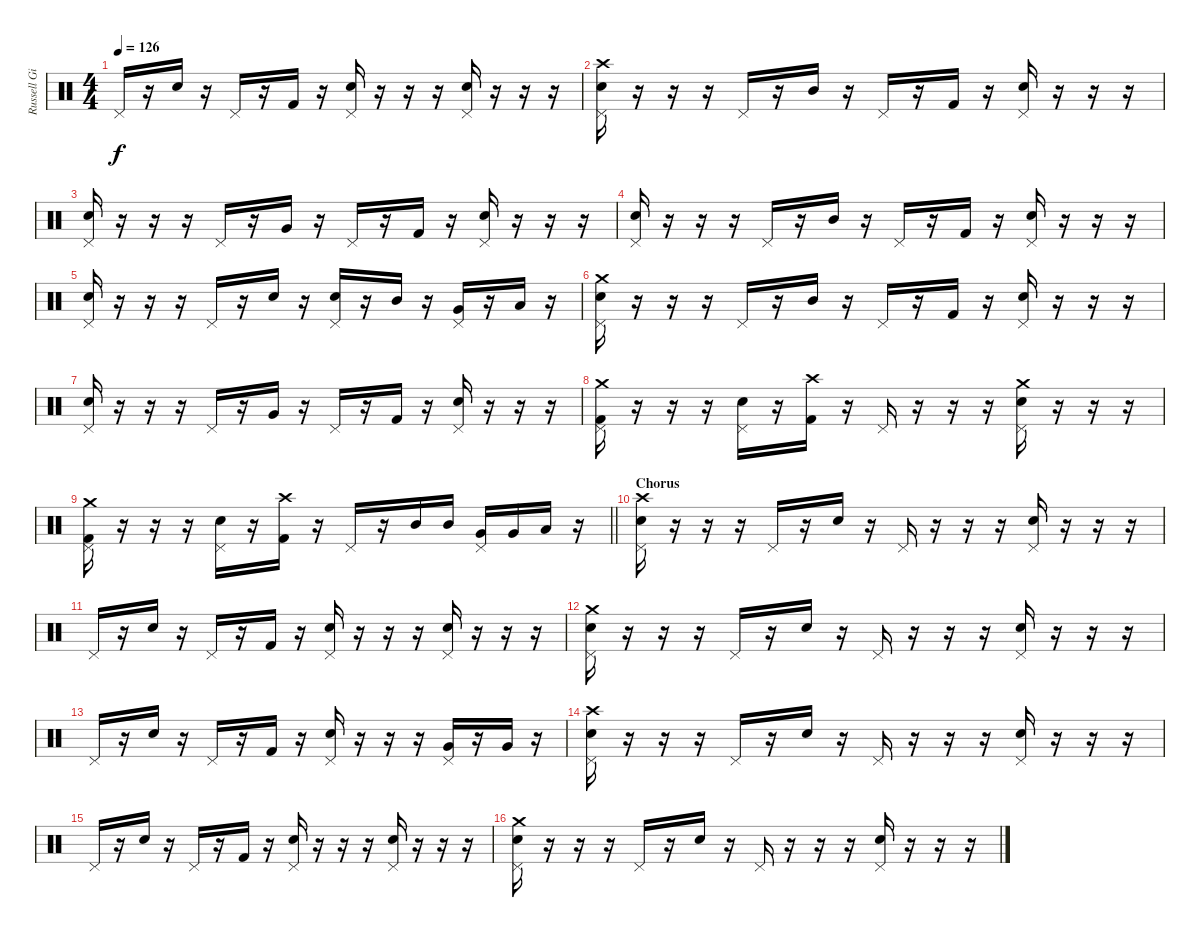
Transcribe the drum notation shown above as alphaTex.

\track ("Russell Gilbrook - Drums" "Russell Gi") {instrument percussion}
\staff {score}
\articulation defaults
\ts (4 4)
\tempo 126
\clef neutral
\ks c "Pedal Hi-Hat (hit)".16{dy f}
r.16 "Snare (hit) 2".16 r.16 "Pedal Hi-Hat (hit)".16 r.16 "Kick (hit) 2".16 r.16 ("Pedal Hi-Hat (hit)" "Snare (hit) 2").16 r.16 r.16 r.16 ("Pedal Hi-Hat (hit)" "Snare (hit) 2").16 r.16 r.16 r.16 |
("Crash high (hit)" "Pedal Hi-Hat (hit)" "Snare (hit) 2").16 r.16 r.16 r.16 "Pedal Hi-Hat (hit)".16 r.16 "Mid Tom (hit)".16 r.16 "Pedal Hi-Hat (hit)".16 r.16 "Kick (hit) 2".16 r.16 ("Pedal Hi-Hat (hit)" "Snare (hit) 2").16 r.16 r.16 r.16 |
("Pedal Hi-Hat (hit)" "Snare (hit) 2").16 r.16 r.16 r.16 "Pedal Hi-Hat (hit)".16 r.16 "Very Low Tom (hit)".16 r.16 "Pedal Hi-Hat (hit)".16 r.16 "Kick (hit) 2".16 r.16 ("Pedal Hi-Hat (hit)" "Snare (hit) 2").16 r.16 r.16 r.16 |
("Pedal Hi-Hat (hit)" "Snare (hit) 2").16 r.16 r.16 r.16 "Pedal Hi-Hat (hit)".16 r.16 "Mid Tom (hit)".16 r.16 "Pedal Hi-Hat (hit)".16 r.16 "Kick (hit) 2".16 r.16 ("Pedal Hi-Hat (hit)" "Snare (hit) 2").16 r.16 r.16 r.16 |
("Pedal Hi-Hat (hit)" "Snare (hit) 2").16 r.16 r.16 r.16 "Pedal Hi-Hat (hit)".16 r.16 "Snare (hit) 2".16 r.16 ("Pedal Hi-Hat (hit)" "Snare (hit) 2").16 r.16 "Mid Tom (hit)".16 r.16 ("Very Low Tom (hit)" "Pedal Hi-Hat (hit)").16 r.16 "Low Floor Tom (hit)".16 r.16 |
("Crash medium (hit)" "Pedal Hi-Hat (hit)" "Snare (hit) 2").16 r.16 r.16 r.16 "Pedal Hi-Hat (hit)".16 r.16 "Mid Tom (hit)".16 r.16 "Pedal Hi-Hat (hit)".16 r.16 "Kick (hit) 2".16 r.16 ("Pedal Hi-Hat (hit)" "Snare (hit) 2").16 r.16 r.16 r.16 |
("Pedal Hi-Hat (hit)" "Snare (hit) 2").16 r.16 r.16 r.16 "Pedal Hi-Hat (hit)".16 r.16 "Very Low Tom (hit)".16 r.16 "Pedal Hi-Hat (hit)".16 r.16 "Kick (hit) 2".16 r.16 ("Pedal Hi-Hat (hit)" "Snare (hit) 2").16 r.16 r.16 r.16 |
("Crash medium (hit)" "Pedal Hi-Hat (hit)" "Kick (hit) 2").16 r.16 r.16 r.16 ("Pedal Hi-Hat (hit)" "Snare (hit) 2").16 r.16 ("Crash high (hit)" "Kick (hit) 2").16 r.16 "Pedal Hi-Hat (hit)".16 r.16 r.16 r.16 ("Crash medium (hit)" "Pedal Hi-Hat (hit)" "Snare (hit) 2").16 r.16 r.16 r.16 |
\barLineRight lightlight
("Crash medium (hit)" "Pedal Hi-Hat (hit)" "Kick (hit) 2").16 r.16 r.16 r.16 ("Pedal Hi-Hat (hit)" "Snare (hit) 2").16 r.16 ("Crash high (hit)" "Kick (hit) 2").16 r.16 "Pedal Hi-Hat (hit)".16 r.16 "Mid Tom (hit)".16 "Mid Tom (hit)".16 ("Very Low Tom (hit)" "Pedal Hi-Hat (hit)").16 "Very Low Tom (hit)".16 "Low Floor Tom (hit)".16 r.16 |
\section ("" "Chorus")
("Crash high (hit)" "Pedal Hi-Hat (hit)" "Snare (hit) 2").16 r.16 r.16 r.16 "Pedal Hi-Hat (hit)".16 r.16 "Snare (hit) 2".16 r.16 "Pedal Hi-Hat (hit)".16 r.16 r.16 r.16 ("Pedal Hi-Hat (hit)" "Snare (hit) 2").16 r.16 r.16 r.16 |
"Pedal Hi-Hat (hit)".16 r.16 "Snare (hit) 2".16 r.16 "Pedal Hi-Hat (hit)".16 r.16 "Kick (hit) 2".16 r.16 ("Pedal Hi-Hat (hit)" "Snare (hit) 2").16 r.16 r.16 r.16 ("Pedal Hi-Hat (hit)" "Snare (hit) 2").16 r.16 r.16 r.16 |
("Crash medium (hit)" "Pedal Hi-Hat (hit)" "Snare (hit) 2").16 r.16 r.16 r.16 "Pedal Hi-Hat (hit)".16 r.16 "Snare (hit) 2".16 r.16 "Pedal Hi-Hat (hit)".16 r.16 r.16 r.16 ("Pedal Hi-Hat (hit)" "Snare (hit) 2").16 r.16 r.16 r.16 |
"Pedal Hi-Hat (hit)".16 r.16 "Snare (hit) 2".16 r.16 "Pedal Hi-Hat (hit)".16 r.16 "Kick (hit) 2".16 r.16 ("Pedal Hi-Hat (hit)" "Snare (hit) 2").16 r.16 r.16 r.16 ("Very Low Tom (hit)" "Pedal Hi-Hat (hit)").16 r.16 "Very Low Tom (hit)".16 r.16 |
("Crash high (hit)" "Pedal Hi-Hat (hit)" "Snare (hit) 2").16 r.16 r.16 r.16 "Pedal Hi-Hat (hit)".16 r.16 "Snare (hit) 2".16 r.16 "Pedal Hi-Hat (hit)".16 r.16 r.16 r.16 ("Pedal Hi-Hat (hit)" "Snare (hit) 2").16 r.16 r.16 r.16 |
"Pedal Hi-Hat (hit)".16 r.16 "Snare (hit) 2".16 r.16 "Pedal Hi-Hat (hit)".16 r.16 "Kick (hit) 2".16 r.16 ("Pedal Hi-Hat (hit)" "Snare (hit) 2").16 r.16 r.16 r.16 ("Pedal Hi-Hat (hit)" "Snare (hit) 2").16 r.16 r.16 r.16 |
("Crash medium (hit)" "Pedal Hi-Hat (hit)" "Snare (hit) 2").16 r.16 r.16 r.16 "Pedal Hi-Hat (hit)".16 r.16 "Snare (hit) 2".16 r.16 "Pedal Hi-Hat (hit)".16 r.16 r.16 r.16 ("Pedal Hi-Hat (hit)" "Snare (hit) 2").16 r.16 r.16 r.16
